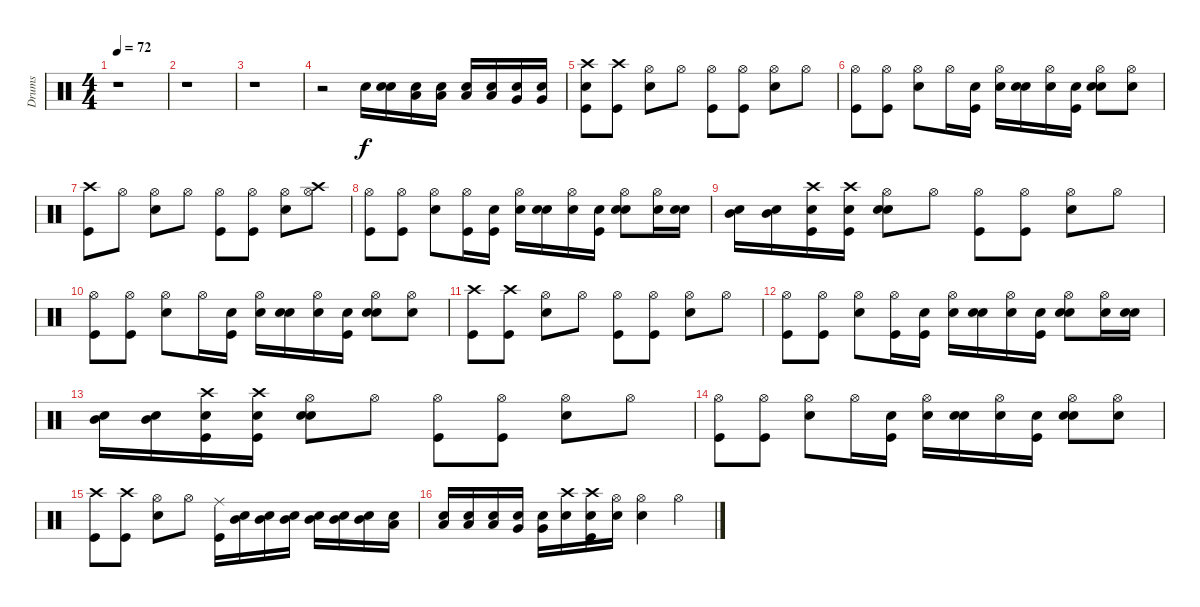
\track ("Drums" "Drums") {instrument percussion}
\staff {score}
\articulation defaults
\ts (4 4)
\tempo 72
\clef neutral
\ks c
r.1{dy f} |
r.1 |
r.1 |
r.2 "Snare (hit) 2".16 ("Snare (hit)" "Snare (hit) 2").16 ("Snare (hit)" "Low Tom (hit)").16 ("Snare (hit)" "Low Tom (hit)").16 ("Snare (hit)" "Low Tom (hit)").16 ("Snare (hit)" "Low Tom (hit)").16 ("Snare (hit)" "Very Low Tom (hit)").16 ("Snare (hit)" "Very Low Tom (hit)").16 |
("Snare (hit)" "Kick (hit)" "Crash high (hit)").8 ("Kick (hit)" "Crash high (hit)").8 ("Snare (hit) 2" "Hi-Hat (open)").8 "Hi-Hat (open)".8 ("Kick (hit)" "Hi-Hat (open)").8 ("Kick (hit)" "Hi-Hat (open)").8 ("Snare (hit) 2" "Hi-Hat (open)").8 "Hi-Hat (open)".8 |
("Kick (hit)" "Hi-Hat (open)").8 ("Kick (hit)" "Hi-Hat (open)").8 ("Snare (hit) 2" "Hi-Hat (open)").8 "Hi-Hat (open)".16 ("Snare (hit)" "Kick (hit)").16 ("Snare (hit)" "Hi-Hat (open)").16 ("Snare (hit)" "Snare (hit) 2").16 ("Snare (hit)" "Hi-Hat (open)").16 ("Snare (hit)" "Kick (hit)").16 ("Snare (hit)" "Snare (hit) 2" "Hi-Hat (open)").8 ("Snare (hit) 2" "Hi-Hat (open)").8 |
("Kick (hit)" "Crash high (hit)").8 "Hi-Hat (open)".8 ("Snare (hit) 2" "Hi-Hat (open)").8 "Hi-Hat (open)".8 ("Kick (hit)" "Hi-Hat (open)").8 ("Kick (hit)" "Hi-Hat (open)").8 ("Snare (hit) 2" "Hi-Hat (open)").8 ("Hi-Hat (open)" "Crash high (hit)").8 |
("Kick (hit)" "Hi-Hat (open)").8 ("Kick (hit)" "Hi-Hat (open)").8 ("Snare (hit) 2" "Hi-Hat (open)").8 ("Kick (hit)" "Hi-Hat (open)").16 ("Snare (hit)" "Kick (hit)").16 ("Snare (hit)" "Hi-Hat (open)").16 ("Snare (hit)" "Snare (hit) 2").16 ("Snare (hit)" "Hi-Hat (open)").16 ("Snare (hit)" "Kick (hit)").16 ("Snare (hit)" "Snare (hit) 2" "Hi-Hat (open)").8 ("Snare (hit) 2" "Hi-Hat (open)").16 ("Snare (hit)" "Snare (hit) 2").16 |
("Snare (hit)" "Mid Tom (hit)").16 ("Snare (hit)" "Mid Tom (hit)").16 ("Snare (hit)" "Kick (hit)" "Crash high (hit)").16 ("Snare (hit)" "Kick (hit)" "Crash high (hit)").16 ("Snare (hit)" "Snare (hit) 2" "Hi-Hat (open)").8 "Hi-Hat (open)".8 ("Kick (hit)" "Hi-Hat (open)").8 ("Kick (hit)" "Hi-Hat (open)").8 ("Snare (hit) 2" "Hi-Hat (open)").8 "Hi-Hat (open)".8 |
("Kick (hit)" "Hi-Hat (open)").8 ("Kick (hit)" "Hi-Hat (open)").8 ("Snare (hit) 2" "Hi-Hat (open)").8 "Hi-Hat (open)".16 ("Snare (hit)" "Kick (hit)").16 ("Snare (hit)" "Hi-Hat (open)").16 ("Snare (hit)" "Snare (hit) 2").16 ("Snare (hit)" "Hi-Hat (open)").16 ("Snare (hit)" "Kick (hit)").16 ("Snare (hit)" "Snare (hit) 2" "Hi-Hat (open)").8 ("Snare (hit) 2" "Hi-Hat (open)").8 |
("Kick (hit)" "Crash high (hit)").8 ("Kick (hit)" "Crash high (hit)").8 ("Snare (hit) 2" "Hi-Hat (open)").8 "Hi-Hat (open)".8 ("Kick (hit)" "Hi-Hat (open)").8 ("Kick (hit)" "Hi-Hat (open)").8 ("Snare (hit) 2" "Hi-Hat (open)").8 "Hi-Hat (open)".8 |
("Kick (hit)" "Hi-Hat (open)").8 ("Kick (hit)" "Hi-Hat (open)").8 ("Snare (hit) 2" "Hi-Hat (open)").8 ("Kick (hit)" "Hi-Hat (open)").16 ("Snare (hit)" "Kick (hit)").16 ("Snare (hit)" "Hi-Hat (open)").16 ("Snare (hit)" "Snare (hit) 2").16 ("Snare (hit)" "Hi-Hat (open)").16 ("Snare (hit)" "Kick (hit)").16 ("Snare (hit)" "Snare (hit) 2" "Hi-Hat (open)").8 ("Snare (hit) 2" "Hi-Hat (open)").16 ("Snare (hit)" "Snare (hit) 2").16 |
("Snare (hit)" "Mid Tom (hit)").16 ("Snare (hit)" "Mid Tom (hit)").16 ("Snare (hit)" "Kick (hit)" "Crash high (hit)").16 ("Snare (hit)" "Kick (hit)" "Crash high (hit)").16 ("Snare (hit)" "Snare (hit) 2" "Hi-Hat (open)").8 "Hi-Hat (open)".8 ("Kick (hit)" "Hi-Hat (open)").8 ("Kick (hit)" "Hi-Hat (open)").8 ("Snare (hit) 2" "Hi-Hat (open)").8 "Hi-Hat (open)".8 |
("Kick (hit)" "Hi-Hat (open)").8 ("Kick (hit)" "Hi-Hat (open)").8 ("Snare (hit) 2" "Hi-Hat (open)").8 "Hi-Hat (open)".16 ("Snare (hit)" "Kick (hit)").16 ("Snare (hit)" "Hi-Hat (open)").16 ("Snare (hit)" "Snare (hit) 2").16 ("Snare (hit)" "Hi-Hat (open)").16 ("Snare (hit)" "Kick (hit)").16 ("Snare (hit)" "Snare (hit) 2" "Hi-Hat (open)").8 ("Snare (hit) 2" "Hi-Hat (open)").8 |
("Kick (hit)" "Crash high (hit)").8 ("Kick (hit)" "Crash high (hit)").8 ("Hi-Hat (open)" "Snare (hit) 2").8 "Hi-Hat (open)".8 ("Kick (hit)" "Ride (middle)").16 ("Snare (hit)" "Mid Tom (hit)").16 ("Snare (hit)" "Mid Tom (hit)").16 ("Snare (hit)" "Mid Tom (hit)").16 ("Snare (hit)" "Mid Tom (hit)").16 ("Snare (hit)" "Mid Tom (hit)").16 ("Snare (hit)" "Mid Tom (hit)").16 ("Snare (hit)" "Low Tom (hit)").16 |
("Snare (hit)" "Low Tom (hit)").16 ("Snare (hit)" "Low Tom (hit)").16 ("Snare (hit)" "Low Tom (hit)").16 ("Snare (hit)" "Very Low Tom (hit)").16 ("Snare (hit)" "Very Low Tom (hit)").16 ("Snare (hit)" "Crash high (hit)").16 ("Snare (hit)" "Kick (hit)" "Crash high (hit)").16 ("Snare (hit)" "Hi-Hat (open)").16 ("Snare (hit)" "Hi-Hat (open)").4 "Hi-Hat (open)".4
